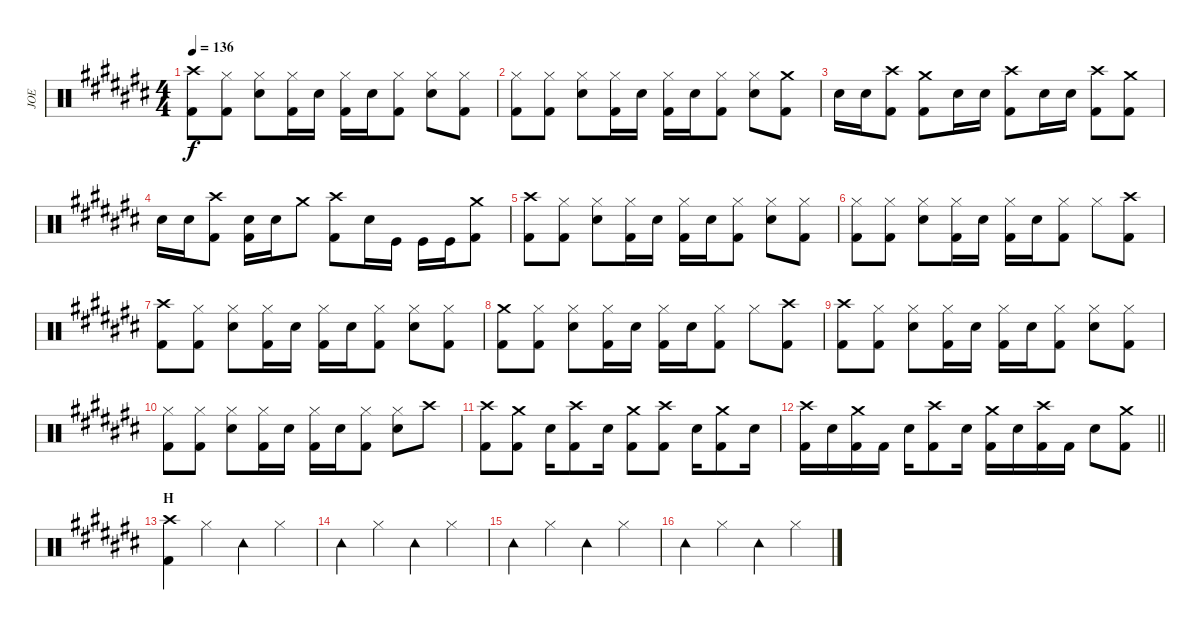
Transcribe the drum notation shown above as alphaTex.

\track ("JOE" "JOE") {instrument percussion}
\staff {score}
\articulation defaults
\ts (4 4)
\tempo 136
\clef neutral
\ks c#
("Crash high (hit)" "Kick (hit) 2").8{dy f} ("Hi-Hat (closed)" "Kick (hit) 2").8 ("Hi-Hat (closed)" "Snare (hit) 2").8 ("Hi-Hat (closed)" "Kick (hit) 2").16 "Snare (hit) 2".16 ("Hi-Hat (closed)" "Kick (hit) 2").16 "Snare (hit) 2".16 ("Hi-Hat (closed)" "Kick (hit) 2").8 ("Hi-Hat (closed)" "Snare (hit) 2").8 ("Hi-Hat (closed)" "Kick (hit) 2").8 |
("Hi-Hat (closed)" "Kick (hit) 2").8 ("Hi-Hat (closed)" "Kick (hit) 2").8 ("Hi-Hat (closed)" "Snare (hit) 2").8 ("Hi-Hat (closed)" "Kick (hit) 2").16 "Snare (hit) 2".16 ("Hi-Hat (closed)" "Kick (hit) 2").16 "Snare (hit) 2".16 ("Hi-Hat (closed)" "Kick (hit) 2").8 ("Hi-Hat (closed)" "Snare (hit) 2").8 ("Crash medium (hit)" "Kick (hit) 2").8 |
"Snare (hit) 2".16 "Snare (hit) 2".16 ("Crash high (hit)" "Kick (hit) 2").8 ("Crash medium (hit)" "Kick (hit) 2").8 "Snare (hit) 2".16 "Snare (hit) 2".16 ("Crash high (hit)" "Kick (hit) 2").8 "Snare (hit) 2".16 "Snare (hit) 2".16 ("Crash high (hit)" "Kick (hit) 2").8 ("Crash medium (hit)" "Kick (hit) 2").8 |
"Snare (hit) 2".16 "Snare (hit) 2".16 ("Crash high (hit)" "Kick (hit) 2").8 ("Snare (hit) 2" "Kick (hit) 2").16 "Snare (hit) 2".16 "Crash medium (hit)".8 ("Crash high (hit)" "Kick (hit) 2").8 "Snare (hit) 2".16 "Kick (hit)".16 "Kick (hit)".16 "Kick (hit)".16 ("Crash medium (hit)" "Kick (hit) 2").8 |
("Crash high (hit)" "Kick (hit) 2").8 ("Hi-Hat (closed)" "Kick (hit) 2").8 ("Hi-Hat (closed)" "Snare (hit) 2").8 ("Hi-Hat (closed)" "Kick (hit) 2").16 "Snare (hit) 2".16 ("Hi-Hat (closed)" "Kick (hit) 2").16 "Snare (hit) 2".16 ("Hi-Hat (closed)" "Kick (hit) 2").8 ("Hi-Hat (closed)" "Snare (hit) 2").8 ("Hi-Hat (closed)" "Kick (hit) 2").8 |
("Hi-Hat (closed)" "Kick (hit) 2").8 ("Hi-Hat (closed)" "Kick (hit) 2").8 ("Hi-Hat (closed)" "Snare (hit) 2").8 ("Hi-Hat (closed)" "Kick (hit) 2").16 "Snare (hit) 2".16 ("Hi-Hat (closed)" "Kick (hit) 2").16 "Snare (hit) 2".16 ("Hi-Hat (closed)" "Kick (hit) 2").8 "Hi-Hat (closed)".8 ("Crash high (hit)" "Kick (hit) 2").8 |
("Crash high (hit)" "Kick (hit) 2").8 ("Hi-Hat (closed)" "Kick (hit) 2").8 ("Hi-Hat (closed)" "Snare (hit) 2").8 ("Hi-Hat (closed)" "Kick (hit) 2").16 "Snare (hit) 2".16 ("Hi-Hat (closed)" "Kick (hit) 2").16 "Snare (hit) 2".16 ("Hi-Hat (closed)" "Kick (hit) 2").8 ("Hi-Hat (closed)" "Snare (hit) 2").8 ("Hi-Hat (closed)" "Kick (hit) 2").8 |
("Crash medium (hit)" "Kick (hit) 2").8 ("Hi-Hat (closed)" "Kick (hit) 2").8 ("Hi-Hat (closed)" "Snare (hit) 2").8 ("Hi-Hat (closed)" "Kick (hit) 2").16 "Snare (hit) 2".16 ("Hi-Hat (closed)" "Kick (hit) 2").16 "Snare (hit) 2".16 ("Hi-Hat (closed)" "Kick (hit) 2").8 "Hi-Hat (closed)".8 ("Crash high (hit)" "Kick (hit) 2").8 |
("Crash high (hit)" "Kick (hit) 2").8 ("Hi-Hat (closed)" "Kick (hit) 2").8 ("Hi-Hat (closed)" "Snare (hit) 2").8 ("Hi-Hat (closed)" "Kick (hit) 2").16 "Snare (hit) 2".16 ("Hi-Hat (closed)" "Kick (hit) 2").16 "Snare (hit) 2".16 ("Hi-Hat (closed)" "Kick (hit) 2").8 ("Hi-Hat (closed)" "Snare (hit) 2").8 ("Hi-Hat (closed)" "Kick (hit) 2").8 |
("Hi-Hat (closed)" "Kick (hit) 2").8 ("Hi-Hat (closed)" "Kick (hit) 2").8 ("Hi-Hat (closed)" "Snare (hit) 2").8 ("Hi-Hat (closed)" "Kick (hit) 2").16 "Snare (hit) 2".16 ("Hi-Hat (closed)" "Kick (hit) 2").16 "Snare (hit) 2".16 ("Hi-Hat (closed)" "Kick (hit) 2").8 ("Hi-Hat (closed)" "Snare (hit) 2").8 "Crash high (hit)".8 |
("Crash high (hit)" "Kick (hit) 2").8 ("Crash medium (hit)" "Kick (hit) 2").8 "Snare (hit) 2".16 ("Crash high (hit)" "Kick (hit) 2").8 "Snare (hit) 2".16 ("Crash medium (hit)" "Kick (hit) 2").8 ("Crash high (hit)" "Kick (hit) 2").8 "Snare (hit) 2".16 ("Crash medium (hit)" "Kick (hit) 2").8 "Snare (hit) 2".16 |
\barLineRight lightlight
("Crash high (hit)" "Kick (hit) 2").16 "Snare (hit) 2".16 ("Crash medium (hit)" "Kick (hit) 2").16 "Kick (hit) 2".16 "Snare (hit) 2".16 ("Crash high (hit)" "Kick (hit) 2").8 "Snare (hit) 2".16 ("Crash medium (hit)" "Kick (hit) 2").16 "Snare (hit) 2".16 ("Crash high (hit)" "Kick (hit) 2").16 "Kick (hit) 2".16 "Snare (hit) 2".8 ("Crash medium (hit)" "Kick (hit) 2").8 |
\section ("" "H")
("Crash high (hit)" "Kick (hit) 2").4 "Hi-Hat (closed)".4 "Tambourine (hit)".4 "Hi-Hat (closed)".4 |
"Tambourine (hit)".4 "Hi-Hat (closed)".4 "Tambourine (hit)".4 "Hi-Hat (closed)".4 |
"Tambourine (hit)".4 "Hi-Hat (closed)".4 "Tambourine (hit)".4 "Hi-Hat (closed)".4 |
"Tambourine (hit)".4 "Hi-Hat (closed)".4 "Tambourine (hit)".4 "Hi-Hat (closed)".4
